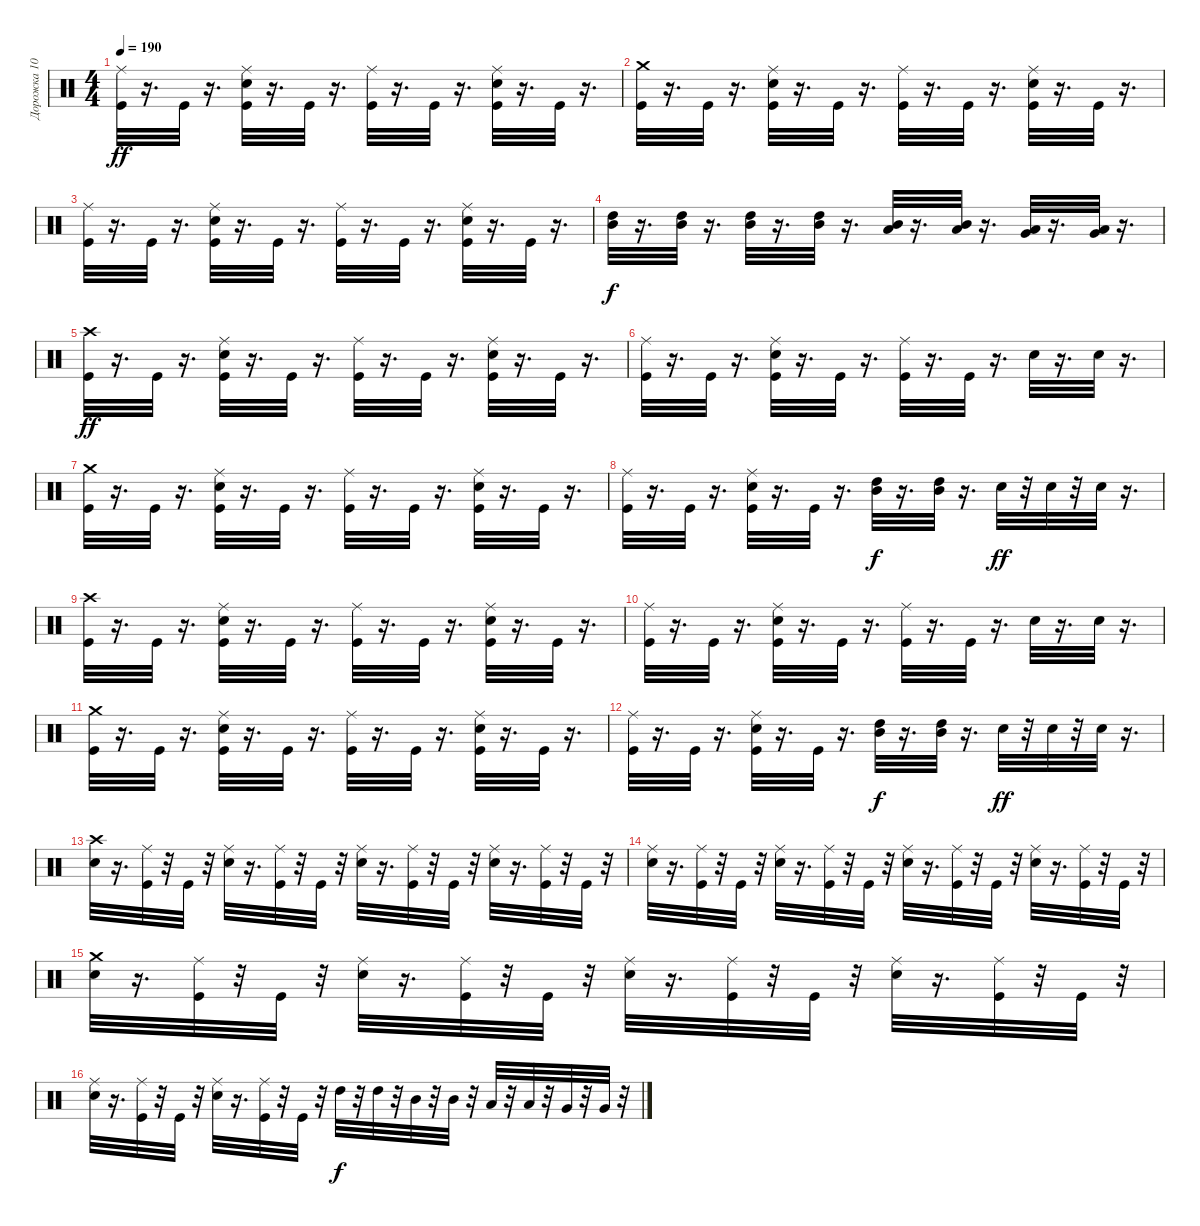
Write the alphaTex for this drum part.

\track ("Дорожка 10" "Дорожка 10") {instrument percussion}
\staff {score}
\articulation defaults
\ts (4 4)
\tempo 190
\clef neutral
\ks c
("Ride (middle)" "Kick (hit)").32{dy ff} r.16{d} "Kick (hit)".32 r.16{d} ("Ride (middle)" "Kick (hit)" "Snare (hit) 2").32 r.16{d} "Kick (hit)".32 r.16{d} ("Ride (middle)" "Kick (hit)").32 r.16{d} "Kick (hit)".32 r.16{d} ("Ride (middle)" "Kick (hit)" "Snare (hit) 2").32 r.16{d} "Kick (hit)".32 r.16{d} |
("Kick (hit)" "Crash medium (hit)").32 r.16{d} "Kick (hit)".32 r.16{d} ("Snare (hit) 2" "Kick (hit)" "Ride (middle)").32 r.16{d} "Kick (hit)".32 r.16{d} ("Kick (hit)" "Ride (middle)").32 r.16{d} "Kick (hit)".32 r.16{d} ("Snare (hit) 2" "Kick (hit)" "Ride (middle)").32 r.16{d} "Kick (hit)".32 r.16{d} |
("Kick (hit)" "Ride (middle)").32 r.16{d} "Kick (hit)".32 r.16{d} ("Snare (hit) 2" "Kick (hit)" "Ride (middle)").32 r.16{d} "Kick (hit)".32 r.16{d} ("Kick (hit)" "Ride (middle)").32 r.16{d} "Kick (hit)".32 r.16{d} ("Snare (hit) 2" "Kick (hit)" "Ride (middle)").32 r.16{d} "Kick (hit)".32 r.16{d} |
("High Tom (hit)" "Mid Tom (hit)").32{dy f} r.16{d} ("Mid Tom (hit)" "High Tom (hit)").32 r.16{d} ("Mid Tom (hit)" "High Tom (hit)").32 r.16{d} ("Mid Tom (hit)" "High Tom (hit)").32 r.16{d} ("Low Tom (hit)" "Mid Tom (hit)").32 r.16{d} ("Low Tom (hit)" "Mid Tom (hit)").32 r.16{d} ("Very Low Tom (hit)" "Low Tom (hit)").32 r.16{d} ("Very Low Tom (hit)" "Low Tom (hit)").32 r.16{d} |
("Crash high (hit)" "Kick (hit)").32{dy ff} r.16{d} "Kick (hit)".32 r.16{d} ("Ride (middle)" "Kick (hit)" "Snare (hit) 2").32 r.16{d} "Kick (hit)".32 r.16{d} ("Ride (middle)" "Kick (hit)").32 r.16{d} "Kick (hit)".32 r.16{d} ("Ride (middle)" "Kick (hit)" "Snare (hit) 2").32 r.16{d} "Kick (hit)".32 r.16{d} |
("Ride (middle)" "Kick (hit)").32 r.16{d} "Kick (hit)".32 r.16{d} ("Ride (middle)" "Kick (hit)" "Snare (hit) 2").32 r.16{d} "Kick (hit)".32 r.16{d} ("Ride (middle)" "Kick (hit)").32 r.16{d} "Kick (hit)".32 r.16{d} "Snare (hit) 2".32 r.16{d} "Snare (hit) 2".32 r.16{d} |
("Crash medium (hit)" "Kick (hit)").32 r.16{d} "Kick (hit)".32 r.16{d} ("Kick (hit)" "Snare (hit) 2" "Ride (middle)").32 r.16{d} "Kick (hit)".32 r.16{d} ("Kick (hit)" "Ride (middle)").32 r.16{d} "Kick (hit)".32 r.16{d} ("Kick (hit)" "Snare (hit) 2" "Ride (middle)").32 r.16{d} "Kick (hit)".32 r.16{d} |
("Ride (middle)" "Kick (hit)").32 r.16{d} "Kick (hit)".32 r.16{d} ("Ride (middle)" "Kick (hit)" "Snare (hit) 2").32 r.16{d} "Kick (hit)".32 r.16{d} ("Mid Tom (hit)" "High Tom (hit)").32{dy f} r.16{d} ("Mid Tom (hit)" "High Tom (hit)").32 r.16{d} "Snare (hit) 2".32{dy ff} r.32 "Snare (hit) 2".32 r.32 "Snare (hit) 2".32 r.16{d} |
("Crash high (hit)" "Kick (hit)").32 r.16{d} "Kick (hit)".32 r.16{d} ("Ride (middle)" "Kick (hit)" "Snare (hit) 2").32 r.16{d} "Kick (hit)".32 r.16{d} ("Ride (middle)" "Kick (hit)").32 r.16{d} "Kick (hit)".32 r.16{d} ("Ride (middle)" "Kick (hit)" "Snare (hit) 2").32 r.16{d} "Kick (hit)".32 r.16{d} |
("Ride (middle)" "Kick (hit)").32 r.16{d} "Kick (hit)".32 r.16{d} ("Ride (middle)" "Kick (hit)" "Snare (hit) 2").32 r.16{d} "Kick (hit)".32 r.16{d} ("Ride (middle)" "Kick (hit)").32 r.16{d} "Kick (hit)".32 r.16{d} "Snare (hit) 2".32 r.16{d} "Snare (hit) 2".32 r.16{d} |
("Crash medium (hit)" "Kick (hit)").32 r.16{d} "Kick (hit)".32 r.16{d} ("Kick (hit)" "Snare (hit) 2" "Ride (middle)").32 r.16{d} "Kick (hit)".32 r.16{d} ("Kick (hit)" "Ride (middle)").32 r.16{d} "Kick (hit)".32 r.16{d} ("Kick (hit)" "Snare (hit) 2" "Ride (middle)").32 r.16{d} "Kick (hit)".32 r.16{d} |
("Ride (middle)" "Kick (hit)").32 r.16{d} "Kick (hit)".32 r.16{d} ("Ride (middle)" "Kick (hit)" "Snare (hit) 2").32 r.16{d} "Kick (hit)".32 r.16{d} ("Mid Tom (hit)" "High Tom (hit)").32{dy f} r.16{d} ("Mid Tom (hit)" "High Tom (hit)").32 r.16{d} "Snare (hit) 2".32{dy ff} r.32 "Snare (hit) 2".32 r.32 "Snare (hit) 2".32 r.16{d} |
("Snare (hit) 2" "Crash high (hit)").32 r.16{d} ("Ride (middle)" "Kick (hit)").32 r.32 "Kick (hit)".32 r.32 ("Ride (middle)" "Snare (hit) 2").32 r.16{d} ("Ride (middle)" "Kick (hit)").32 r.32 "Kick (hit)".32 r.32 ("Ride (middle)" "Snare (hit) 2").32 r.16{d} ("Kick (hit)" "Ride (middle)").32 r.32 "Kick (hit)".32 r.32 ("Ride (middle)" "Snare (hit) 2").32 r.16{d} ("Ride (middle)" "Kick (hit)").32 r.32 "Kick (hit)".32 r.32 |
("Snare (hit) 2" "Ride (middle)").32 r.16{d} ("Ride (middle)" "Kick (hit)").32 r.32 "Kick (hit)".32 r.32 ("Ride (middle)" "Snare (hit) 2").32 r.16{d} ("Ride (middle)" "Kick (hit)").32 r.32 "Kick (hit)".32 r.32 ("Ride (middle)" "Snare (hit) 2").32 r.16{d} ("Ride (middle)" "Kick (hit)").32 r.32 "Kick (hit)".32 r.32 ("Ride (middle)" "Snare (hit) 2").32 r.16{d} ("Ride (middle)" "Kick (hit)").32 r.32 "Kick (hit)".32 r.32 |
("Crash medium (hit)" "Snare (hit) 2").32 r.16{d} ("Ride (middle)" "Kick (hit)").32 r.32 "Kick (hit)".32 r.32 ("Ride (middle)" "Snare (hit) 2").32 r.16{d} ("Ride (middle)" "Kick (hit)").32 r.32 "Kick (hit)".32 r.32 ("Ride (middle)" "Snare (hit) 2").32 r.16{d} ("Ride (middle)" "Kick (hit)").32 r.32 "Kick (hit)".32 r.32 ("Ride (middle)" "Snare (hit) 2").32 r.16{d} ("Ride (middle)" "Kick (hit)").32 r.32 "Kick (hit)".32 r.32 |
("Ride (middle)" "Snare (hit) 2").32 r.16{d} ("Ride (middle)" "Kick (hit)").32 r.32 "Kick (hit)".32 r.32 ("Ride (middle)" "Snare (hit) 2").32 r.16{d} ("Ride (middle)" "Kick (hit)").32 r.32 "Kick (hit)".32 r.32 "High Tom (hit)".32{dy f} r.32 "High Tom (hit)".32 r.32 "Mid Tom (hit)".32 r.32 "Mid Tom (hit)".32 r.32 "Low Tom (hit)".32 r.32 "Low Tom (hit)".32 r.32 "Very Low Tom (hit)".32 r.32 "Very Low Tom (hit)".32 r.32
